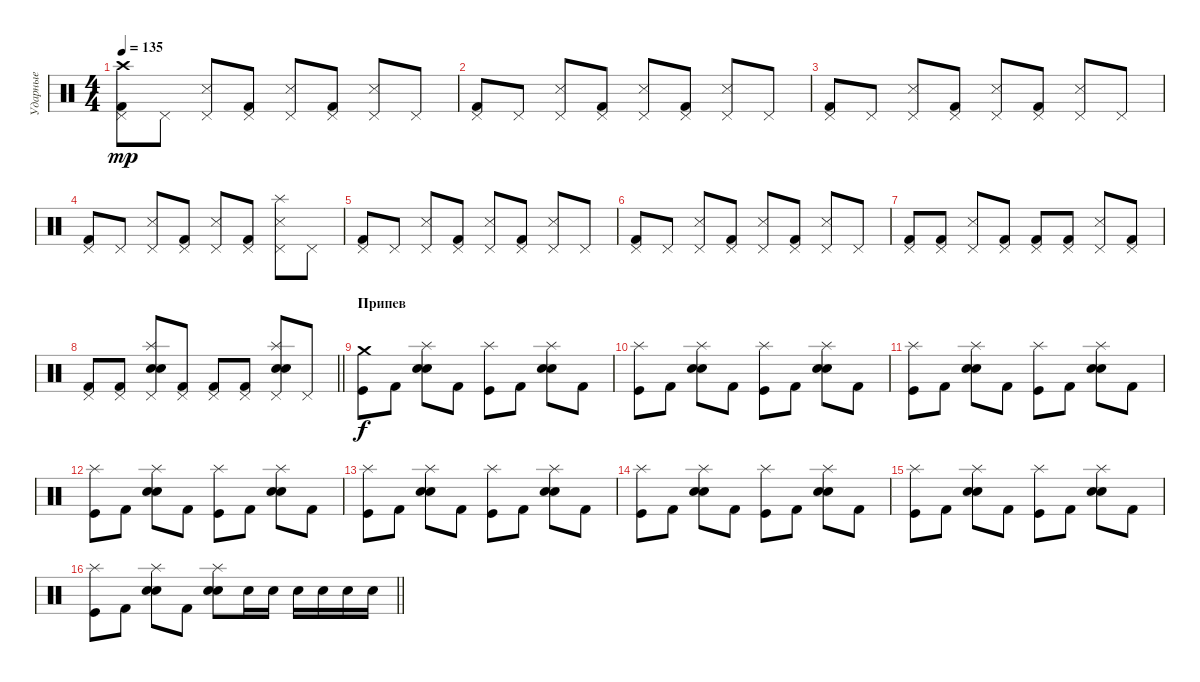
\track ("Ударные" "Ударные") {instrument percussion}
\staff {score}
\articulation defaults
\ts (4 4)
\tempo 135
\clef neutral
\ks c
("Crash high (hit)" "Pedal Hi-Hat (hit)" "Kick (hit) 2").8{dy mp} "Pedal Hi-Hat (hit)".8 ("Metronome (hit)" "Pedal Hi-Hat (hit)").8 ("Pedal Hi-Hat (hit)" "Kick (hit) 2").8 ("Metronome (hit)" "Pedal Hi-Hat (hit)").8 ("Pedal Hi-Hat (hit)" "Kick (hit) 2").8 ("Metronome (hit)" "Pedal Hi-Hat (hit)").8 "Pedal Hi-Hat (hit)".8 |
("Pedal Hi-Hat (hit)" "Kick (hit) 2").8 "Pedal Hi-Hat (hit)".8 ("Metronome (hit)" "Pedal Hi-Hat (hit)").8 ("Pedal Hi-Hat (hit)" "Kick (hit) 2").8 ("Metronome (hit)" "Pedal Hi-Hat (hit)").8 ("Pedal Hi-Hat (hit)" "Kick (hit) 2").8 ("Metronome (hit)" "Pedal Hi-Hat (hit)").8 "Pedal Hi-Hat (hit)".8 |
("Pedal Hi-Hat (hit)" "Kick (hit) 2").8 "Pedal Hi-Hat (hit)".8 ("Metronome (hit)" "Pedal Hi-Hat (hit)").8 ("Pedal Hi-Hat (hit)" "Kick (hit) 2").8 ("Metronome (hit)" "Pedal Hi-Hat (hit)").8 ("Pedal Hi-Hat (hit)" "Kick (hit) 2").8 ("Metronome (hit)" "Pedal Hi-Hat (hit)").8 "Pedal Hi-Hat (hit)".8 |
("Pedal Hi-Hat (hit)" "Kick (hit) 2").8 "Pedal Hi-Hat (hit)".8 ("Metronome (hit)" "Pedal Hi-Hat (hit)").8 ("Pedal Hi-Hat (hit)" "Kick (hit) 2").8 ("Metronome (hit)" "Pedal Hi-Hat (hit)").8 ("Pedal Hi-Hat (hit)" "Kick (hit) 2").8 ("Splash (hit)" "Metronome (hit)" "Pedal Hi-Hat (hit)").8 "Pedal Hi-Hat (hit)".8 |
("Pedal Hi-Hat (hit)" "Kick (hit) 2").8 "Pedal Hi-Hat (hit)".8 ("Metronome (hit)" "Pedal Hi-Hat (hit)").8 ("Pedal Hi-Hat (hit)" "Kick (hit) 2").8 ("Metronome (hit)" "Pedal Hi-Hat (hit)").8 ("Pedal Hi-Hat (hit)" "Kick (hit) 2").8 ("Metronome (hit)" "Pedal Hi-Hat (hit)").8 "Pedal Hi-Hat (hit)".8 |
("Pedal Hi-Hat (hit)" "Kick (hit) 2").8 "Pedal Hi-Hat (hit)".8 ("Metronome (hit)" "Pedal Hi-Hat (hit)").8 ("Pedal Hi-Hat (hit)" "Kick (hit) 2").8 ("Metronome (hit)" "Pedal Hi-Hat (hit)").8 ("Pedal Hi-Hat (hit)" "Kick (hit) 2").8 ("Metronome (hit)" "Pedal Hi-Hat (hit)").8 "Pedal Hi-Hat (hit)".8 |
("Pedal Hi-Hat (hit)" "Kick (hit) 2").8 ("Pedal Hi-Hat (hit)" "Kick (hit) 2").8 ("Metronome (hit)" "Pedal Hi-Hat (hit)").8 ("Pedal Hi-Hat (hit)" "Kick (hit) 2").8 ("Pedal Hi-Hat (hit)" "Kick (hit) 2").8 ("Pedal Hi-Hat (hit)" "Kick (hit) 2").8 ("Metronome (hit)" "Pedal Hi-Hat (hit)").8 ("Pedal Hi-Hat (hit)" "Kick (hit) 2").8 |
\barLineRight lightlight
("Pedal Hi-Hat (hit)" "Kick (hit) 2").8 ("Pedal Hi-Hat (hit)" "Kick (hit) 2").8 ("Splash (hit)" "Snare (hit) 2" "Pedal Hi-Hat (hit)" "Electric Snare (hit)").8 ("Pedal Hi-Hat (hit)" "Kick (hit) 2").8 ("Pedal Hi-Hat (hit)" "Kick (hit) 2").8 ("Pedal Hi-Hat (hit)" "Kick (hit) 2").8 ("Splash (hit)" "Snare (hit) 2" "Pedal Hi-Hat (hit)" "Electric Snare (hit)").8 "Pedal Hi-Hat (hit)".8 |
\section ("" "Припев")
("Crash medium (hit)" "Kick (hit)").8{dy f} "Kick (hit) 2".8 ("Splash (hit)" "Electric Snare (hit)" "Snare (hit) 2").8 "Kick (hit) 2".8 ("Splash (hit)" "Kick (hit)").8 "Kick (hit) 2".8 ("Splash (hit)" "Electric Snare (hit)" "Snare (hit) 2").8 "Kick (hit) 2".8 |
("Splash (hit)" "Kick (hit)").8 "Kick (hit) 2".8 ("Splash (hit)" "Electric Snare (hit)" "Snare (hit) 2").8 "Kick (hit) 2".8 ("Splash (hit)" "Kick (hit)").8 "Kick (hit) 2".8 ("Splash (hit)" "Electric Snare (hit)" "Snare (hit) 2").8 "Kick (hit) 2".8 |
("Splash (hit)" "Kick (hit)").8 "Kick (hit) 2".8 ("Splash (hit)" "Electric Snare (hit)" "Snare (hit) 2").8 "Kick (hit) 2".8 ("Splash (hit)" "Kick (hit)").8 "Kick (hit) 2".8 ("Splash (hit)" "Electric Snare (hit)" "Snare (hit) 2").8 "Kick (hit) 2".8 |
("Splash (hit)" "Kick (hit)").8 "Kick (hit) 2".8 ("Splash (hit)" "Electric Snare (hit)" "Snare (hit) 2").8 "Kick (hit) 2".8 ("Splash (hit)" "Kick (hit)").8 "Kick (hit) 2".8 ("Splash (hit)" "Electric Snare (hit)" "Snare (hit) 2").8 "Kick (hit) 2".8 |
("Splash (hit)" "Kick (hit)").8 "Kick (hit) 2".8 ("Splash (hit)" "Electric Snare (hit)" "Snare (hit) 2").8 "Kick (hit) 2".8 ("Splash (hit)" "Kick (hit)").8 "Kick (hit) 2".8 ("Splash (hit)" "Electric Snare (hit)" "Snare (hit) 2").8 "Kick (hit) 2".8 |
("Splash (hit)" "Kick (hit)").8 "Kick (hit) 2".8 ("Splash (hit)" "Electric Snare (hit)" "Snare (hit) 2").8 "Kick (hit) 2".8 ("Splash (hit)" "Kick (hit)").8 "Kick (hit) 2".8 ("Splash (hit)" "Electric Snare (hit)" "Snare (hit) 2").8 "Kick (hit) 2".8 |
("Splash (hit)" "Kick (hit)").8 "Kick (hit) 2".8 ("Splash (hit)" "Electric Snare (hit)" "Snare (hit) 2").8 "Kick (hit) 2".8 ("Splash (hit)" "Kick (hit)").8 "Kick (hit) 2".8 ("Splash (hit)" "Electric Snare (hit)" "Snare (hit) 2").8 "Kick (hit) 2".8 |
\barLineRight lightlight
("Splash (hit)" "Kick (hit)").8 "Kick (hit) 2".8 ("Splash (hit)" "Electric Snare (hit)" "Snare (hit) 2").8 "Kick (hit) 2".8 ("Splash (hit)" "Electric Snare (hit)" "Snare (hit) 2").8 "Electric Snare (hit)".16 "Electric Snare (hit)".16 "Electric Snare (hit)".16 "Electric Snare (hit)".16 "Electric Snare (hit)".16 "Electric Snare (hit)".16
